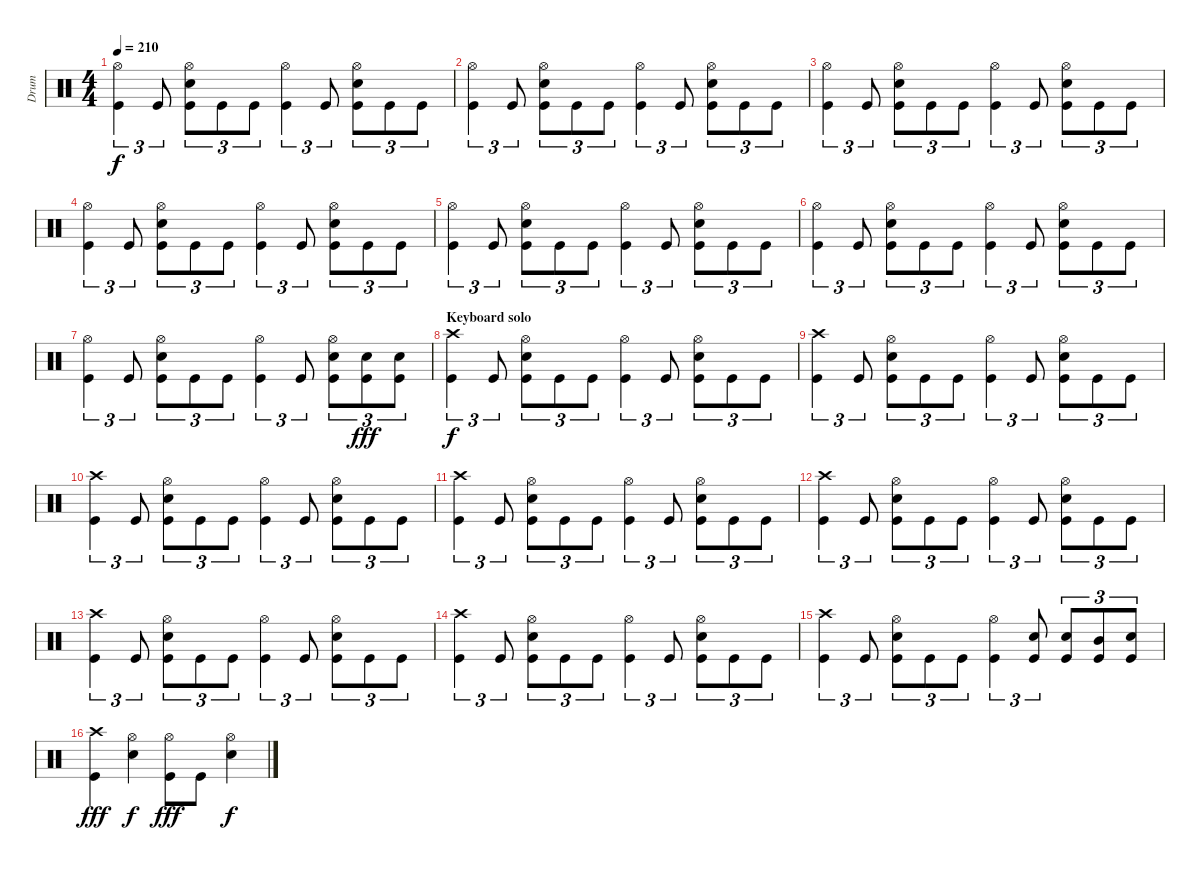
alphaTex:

\track ("Drum" "Drum") {instrument percussion}
\staff {score}
\articulation defaults
\ts (4 4)
\tempo 210
\clef neutral
\ks c
("Hi-Hat (open)" "Kick (hit)").4{tu (3 2) dy f} "Kick (hit)".8{tu (3 2)} ("Hi-Hat (open)" "Snare (hit) 2" "Kick (hit)").8{tu (3 2)} "Kick (hit)".8{tu (3 2)} "Kick (hit)".8{tu (3 2)} ("Hi-Hat (open)" "Kick (hit)").4{tu (3 2)} "Kick (hit)".8{tu (3 2)} ("Hi-Hat (open)" "Snare (hit) 2" "Kick (hit)").8{tu (3 2)} "Kick (hit)".8{tu (3 2)} "Kick (hit)".8{tu (3 2)} |
("Hi-Hat (open)" "Kick (hit)").4{tu (3 2)} "Kick (hit)".8{tu (3 2)} ("Hi-Hat (open)" "Snare (hit) 2" "Kick (hit)").8{tu (3 2)} "Kick (hit)".8{tu (3 2)} "Kick (hit)".8{tu (3 2)} ("Hi-Hat (open)" "Kick (hit)").4{tu (3 2)} "Kick (hit)".8{tu (3 2)} ("Hi-Hat (open)" "Snare (hit) 2" "Kick (hit)").8{tu (3 2)} "Kick (hit)".8{tu (3 2)} "Kick (hit)".8{tu (3 2)} |
("Hi-Hat (open)" "Kick (hit)").4{tu (3 2)} "Kick (hit)".8{tu (3 2)} ("Hi-Hat (open)" "Snare (hit) 2" "Kick (hit)").8{tu (3 2)} "Kick (hit)".8{tu (3 2)} "Kick (hit)".8{tu (3 2)} ("Hi-Hat (open)" "Kick (hit)").4{tu (3 2)} "Kick (hit)".8{tu (3 2)} ("Hi-Hat (open)" "Snare (hit) 2" "Kick (hit)").8{tu (3 2)} "Kick (hit)".8{tu (3 2)} "Kick (hit)".8{tu (3 2)} |
("Hi-Hat (open)" "Kick (hit)").4{tu (3 2)} "Kick (hit)".8{tu (3 2)} ("Hi-Hat (open)" "Snare (hit) 2" "Kick (hit)").8{tu (3 2)} "Kick (hit)".8{tu (3 2)} "Kick (hit)".8{tu (3 2)} ("Hi-Hat (open)" "Kick (hit)").4{tu (3 2)} "Kick (hit)".8{tu (3 2)} ("Hi-Hat (open)" "Snare (hit) 2" "Kick (hit)").8{tu (3 2)} "Kick (hit)".8{tu (3 2)} "Kick (hit)".8{tu (3 2)} |
("Hi-Hat (open)" "Kick (hit)").4{tu (3 2)} "Kick (hit)".8{tu (3 2)} ("Hi-Hat (open)" "Snare (hit) 2" "Kick (hit)").8{tu (3 2)} "Kick (hit)".8{tu (3 2)} "Kick (hit)".8{tu (3 2)} ("Hi-Hat (open)" "Kick (hit)").4{tu (3 2)} "Kick (hit)".8{tu (3 2)} ("Hi-Hat (open)" "Snare (hit) 2" "Kick (hit)").8{tu (3 2)} "Kick (hit)".8{tu (3 2)} "Kick (hit)".8{tu (3 2)} |
("Hi-Hat (open)" "Kick (hit)").4{tu (3 2)} "Kick (hit)".8{tu (3 2)} ("Hi-Hat (open)" "Snare (hit) 2" "Kick (hit)").8{tu (3 2)} "Kick (hit)".8{tu (3 2)} "Kick (hit)".8{tu (3 2)} ("Hi-Hat (open)" "Kick (hit)").4{tu (3 2)} "Kick (hit)".8{tu (3 2)} ("Hi-Hat (open)" "Snare (hit) 2" "Kick (hit)").8{tu (3 2)} "Kick (hit)".8{tu (3 2)} "Kick (hit)".8{tu (3 2)} |
("Hi-Hat (open)" "Kick (hit)").4{tu (3 2)} "Kick (hit)".8{tu (3 2)} ("Hi-Hat (open)" "Snare (hit) 2" "Kick (hit)").8{tu (3 2)} "Kick (hit)".8{tu (3 2)} "Kick (hit)".8{tu (3 2)} ("Hi-Hat (open)" "Kick (hit)").4{tu (3 2)} "Kick (hit)".8{tu (3 2)} ("Hi-Hat (open)" "Snare (hit) 2" "Kick (hit)").8{tu (3 2)} ("Snare (hit) 2" "Kick (hit)").8{tu (3 2) dy fff} ("Snare (hit) 2" "Kick (hit)").8{tu (3 2)} |
\section ("" "Keyboard solo")
("Crash high (hit)" "Kick (hit)").4{tu (3 2) dy f} "Kick (hit)".8{tu (3 2)} ("Hi-Hat (open)" "Snare (hit) 2" "Kick (hit)").8{tu (3 2)} "Kick (hit)".8{tu (3 2)} "Kick (hit)".8{tu (3 2)} ("Hi-Hat (open)" "Kick (hit)").4{tu (3 2)} "Kick (hit)".8{tu (3 2)} ("Hi-Hat (open)" "Snare (hit) 2" "Kick (hit)").8{tu (3 2)} "Kick (hit)".8{tu (3 2)} "Kick (hit)".8{tu (3 2)} |
("Crash high (hit)" "Kick (hit)").4{tu (3 2)} "Kick (hit)".8{tu (3 2)} ("Hi-Hat (open)" "Snare (hit) 2" "Kick (hit)").8{tu (3 2)} "Kick (hit)".8{tu (3 2)} "Kick (hit)".8{tu (3 2)} ("Hi-Hat (open)" "Kick (hit)").4{tu (3 2)} "Kick (hit)".8{tu (3 2)} ("Hi-Hat (open)" "Snare (hit) 2" "Kick (hit)").8{tu (3 2)} "Kick (hit)".8{tu (3 2)} "Kick (hit)".8{tu (3 2)} |
("Crash high (hit)" "Kick (hit)").4{tu (3 2)} "Kick (hit)".8{tu (3 2)} ("Hi-Hat (open)" "Snare (hit) 2" "Kick (hit)").8{tu (3 2)} "Kick (hit)".8{tu (3 2)} "Kick (hit)".8{tu (3 2)} ("Hi-Hat (open)" "Kick (hit)").4{tu (3 2)} "Kick (hit)".8{tu (3 2)} ("Hi-Hat (open)" "Snare (hit) 2" "Kick (hit)").8{tu (3 2)} "Kick (hit)".8{tu (3 2)} "Kick (hit)".8{tu (3 2)} |
("Crash high (hit)" "Kick (hit)").4{tu (3 2)} "Kick (hit)".8{tu (3 2)} ("Hi-Hat (open)" "Snare (hit) 2" "Kick (hit)").8{tu (3 2)} "Kick (hit)".8{tu (3 2)} "Kick (hit)".8{tu (3 2)} ("Hi-Hat (open)" "Kick (hit)").4{tu (3 2)} "Kick (hit)".8{tu (3 2)} ("Hi-Hat (open)" "Snare (hit) 2" "Kick (hit)").8{tu (3 2)} "Kick (hit)".8{tu (3 2)} "Kick (hit)".8{tu (3 2)} |
("Crash high (hit)" "Kick (hit)").4{tu (3 2)} "Kick (hit)".8{tu (3 2)} ("Hi-Hat (open)" "Snare (hit) 2" "Kick (hit)").8{tu (3 2)} "Kick (hit)".8{tu (3 2)} "Kick (hit)".8{tu (3 2)} ("Hi-Hat (open)" "Kick (hit)").4{tu (3 2)} "Kick (hit)".8{tu (3 2)} ("Hi-Hat (open)" "Snare (hit) 2" "Kick (hit)").8{tu (3 2)} "Kick (hit)".8{tu (3 2)} "Kick (hit)".8{tu (3 2)} |
("Crash high (hit)" "Kick (hit)").4{tu (3 2)} "Kick (hit)".8{tu (3 2)} ("Hi-Hat (open)" "Snare (hit) 2" "Kick (hit)").8{tu (3 2)} "Kick (hit)".8{tu (3 2)} "Kick (hit)".8{tu (3 2)} ("Hi-Hat (open)" "Kick (hit)").4{tu (3 2)} "Kick (hit)".8{tu (3 2)} ("Hi-Hat (open)" "Snare (hit) 2" "Kick (hit)").8{tu (3 2)} "Kick (hit)".8{tu (3 2)} "Kick (hit)".8{tu (3 2)} |
("Crash high (hit)" "Kick (hit)").4{tu (3 2)} "Kick (hit)".8{tu (3 2)} ("Hi-Hat (open)" "Snare (hit) 2" "Kick (hit)").8{tu (3 2)} "Kick (hit)".8{tu (3 2)} "Kick (hit)".8{tu (3 2)} ("Hi-Hat (open)" "Kick (hit)").4{tu (3 2)} "Kick (hit)".8{tu (3 2)} ("Hi-Hat (open)" "Snare (hit) 2" "Kick (hit)").8{tu (3 2)} "Kick (hit)".8{tu (3 2)} "Kick (hit)".8{tu (3 2)} |
("Crash high (hit)" "Kick (hit)").4{tu (3 2)} "Kick (hit)".8{tu (3 2)} ("Hi-Hat (open)" "Snare (hit) 2" "Kick (hit)").8{tu (3 2)} "Kick (hit)".8{tu (3 2)} "Kick (hit)".8{tu (3 2)} ("Hi-Hat (open)" "Kick (hit)").4{tu (3 2)} ("Snare (hit) 2" "Kick (hit)").8{tu (3 2)} ("Snare (hit) 2" "Kick (hit)").8{tu (3 2)} ("Mid Tom (hit)" "Kick (hit)").8{tu (3 2)} ("Snare (hit) 2" "Kick (hit)").8{tu (3 2)} |
("Crash high (hit)" "Kick (hit)").4{dy fff} ("Hi-Hat (open)" "Snare (hit) 2").4{dy f} ("Hi-Hat (open)" "Kick (hit)").8{dy fff} "Kick (hit)".8 ("Hi-Hat (open)" "Snare (hit) 2").4{dy f}
